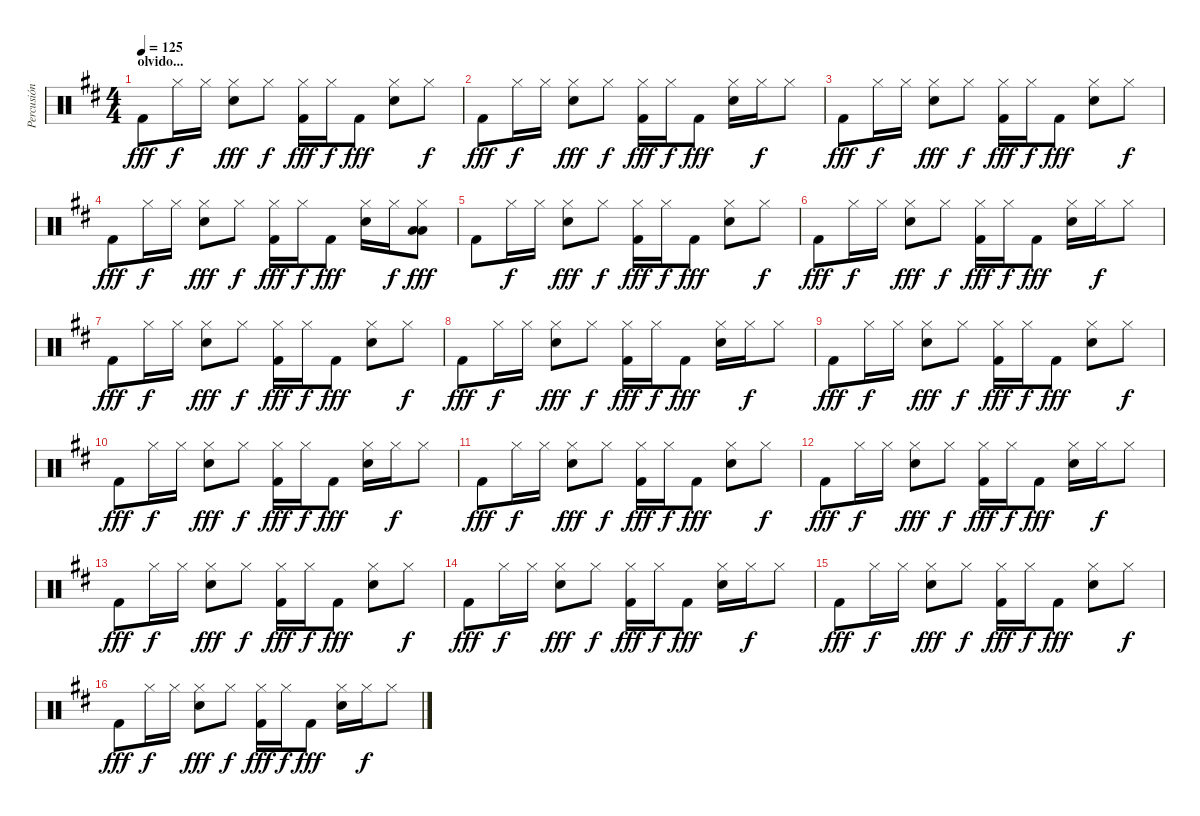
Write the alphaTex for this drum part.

\track ("Percusión" "Percusión") {instrument percussion}
\staff {score}
\articulation defaults
\ts (4 4)
\section ("" "olvido...")
\tempo 125
\clef neutral
\ks d "Kick (hit) 2".8{dy fff} "Hi-Hat (closed)".16{dy f} "Hi-Hat (closed)".16
("Hi-Hat (closed)" "Electric Snare (hit)").8{dy fff} "Hi-Hat (closed)".8{dy f} ("Hi-Hat (closed)" "Kick (hit) 2").16{dy fff} "Hi-Hat (closed)".16{dy f} "Kick (hit) 2".8{dy fff} ("Hi-Hat (closed)" "Electric Snare (hit)").8 "Hi-Hat (closed)".8{dy f} |
"Kick (hit) 2".8{dy fff} "Hi-Hat (closed)".16{dy f} "Hi-Hat (closed)".16 ("Hi-Hat (closed)" "Electric Snare (hit)").8{dy fff} "Hi-Hat (closed)".8{dy f} ("Hi-Hat (closed)" "Kick (hit) 2").16{dy fff} "Hi-Hat (closed)".16{dy f} "Kick (hit) 2".8{dy fff} ("Hi-Hat (closed)" "Electric Snare (hit)").16 "Hi-Hat (closed)".16{dy f} "Hi-Hat (closed)".8 |
"Kick (hit) 2".8{dy fff} "Hi-Hat (closed)".16{dy f} "Hi-Hat (closed)".16 ("Hi-Hat (closed)" "Electric Snare (hit)").8{dy fff} "Hi-Hat (closed)".8{dy f} ("Hi-Hat (closed)" "Kick (hit) 2").16{dy fff} "Hi-Hat (closed)".16{dy f} "Kick (hit) 2".8{dy fff} ("Hi-Hat (closed)" "Electric Snare (hit)").8 "Hi-Hat (closed)".8{dy f} |
"Kick (hit) 2".8{dy fff} "Hi-Hat (closed)".16{dy f} "Hi-Hat (closed)".16 ("Hi-Hat (closed)" "Electric Snare (hit)").8{dy fff} "Hi-Hat (closed)".8{dy f} ("Hi-Hat (closed)" "Kick (hit) 2").16{dy fff} "Hi-Hat (closed)".16{dy f} "Kick (hit) 2".8{dy fff} ("Hi-Hat (closed)" "Electric Snare (hit)").16 "Hi-Hat (closed)".16{dy f} ("Hi-Hat (closed)" "Low Tom (hit)" "Low Tom (hit)").8{dy fff} |
"Kick (hit) 2".8 "Hi-Hat (closed)".16{dy f} "Hi-Hat (closed)".16 ("Hi-Hat (closed)" "Electric Snare (hit)").8{dy fff} "Hi-Hat (closed)".8{dy f} ("Hi-Hat (closed)" "Kick (hit) 2").16{dy fff} "Hi-Hat (closed)".16{dy f} "Kick (hit) 2".8{dy fff} ("Hi-Hat (closed)" "Electric Snare (hit)").8 "Hi-Hat (closed)".8{dy f} |
"Kick (hit) 2".8{dy fff} "Hi-Hat (closed)".16{dy f} "Hi-Hat (closed)".16 ("Hi-Hat (closed)" "Electric Snare (hit)").8{dy fff} "Hi-Hat (closed)".8{dy f} ("Hi-Hat (closed)" "Kick (hit) 2").16{dy fff} "Hi-Hat (closed)".16{dy f} "Kick (hit) 2".8{dy fff} ("Hi-Hat (closed)" "Electric Snare (hit)").16 "Hi-Hat (closed)".16{dy f} "Hi-Hat (closed)".8 |
"Kick (hit) 2".8{dy fff} "Hi-Hat (closed)".16{dy f} "Hi-Hat (closed)".16 ("Hi-Hat (closed)" "Electric Snare (hit)").8{dy fff} "Hi-Hat (closed)".8{dy f} ("Hi-Hat (closed)" "Kick (hit) 2").16{dy fff} "Hi-Hat (closed)".16{dy f} "Kick (hit) 2".8{dy fff} ("Hi-Hat (closed)" "Electric Snare (hit)").8 "Hi-Hat (closed)".8{dy f} |
"Kick (hit) 2".8{dy fff} "Hi-Hat (closed)".16{dy f} "Hi-Hat (closed)".16 ("Hi-Hat (closed)" "Electric Snare (hit)").8{dy fff} "Hi-Hat (closed)".8{dy f} ("Hi-Hat (closed)" "Kick (hit) 2").16{dy fff} "Hi-Hat (closed)".16{dy f} "Kick (hit) 2".8{dy fff} ("Hi-Hat (closed)" "Electric Snare (hit)").16 "Hi-Hat (closed)".16{dy f} "Hi-Hat (closed)".8 |
"Kick (hit) 2".8{dy fff} "Hi-Hat (closed)".16{dy f} "Hi-Hat (closed)".16 ("Hi-Hat (closed)" "Electric Snare (hit)").8{dy fff} "Hi-Hat (closed)".8{dy f} ("Hi-Hat (closed)" "Kick (hit) 2").16{dy fff} "Hi-Hat (closed)".16{dy f} "Kick (hit) 2".8{dy fff} ("Hi-Hat (closed)" "Electric Snare (hit)").8 "Hi-Hat (closed)".8{dy f} |
"Kick (hit) 2".8{dy fff} "Hi-Hat (closed)".16{dy f} "Hi-Hat (closed)".16 ("Hi-Hat (closed)" "Electric Snare (hit)").8{dy fff} "Hi-Hat (closed)".8{dy f} ("Hi-Hat (closed)" "Kick (hit) 2").16{dy fff} "Hi-Hat (closed)".16{dy f} "Kick (hit) 2".8{dy fff} ("Hi-Hat (closed)" "Electric Snare (hit)").16 "Hi-Hat (closed)".16{dy f} "Hi-Hat (closed)".8 |
"Kick (hit) 2".8{dy fff} "Hi-Hat (closed)".16{dy f} "Hi-Hat (closed)".16 ("Hi-Hat (closed)" "Electric Snare (hit)").8{dy fff} "Hi-Hat (closed)".8{dy f} ("Hi-Hat (closed)" "Kick (hit) 2").16{dy fff} "Hi-Hat (closed)".16{dy f} "Kick (hit) 2".8{dy fff} ("Hi-Hat (closed)" "Electric Snare (hit)").8 "Hi-Hat (closed)".8{dy f} |
"Kick (hit) 2".8{dy fff} "Hi-Hat (closed)".16{dy f} "Hi-Hat (closed)".16 ("Hi-Hat (closed)" "Electric Snare (hit)").8{dy fff} "Hi-Hat (closed)".8{dy f} ("Hi-Hat (closed)" "Kick (hit) 2").16{dy fff} "Hi-Hat (closed)".16{dy f} "Kick (hit) 2".8{dy fff} ("Hi-Hat (closed)" "Electric Snare (hit)").16 "Hi-Hat (closed)".16{dy f} "Hi-Hat (closed)".8 |
"Kick (hit) 2".8{dy fff} "Hi-Hat (closed)".16{dy f} "Hi-Hat (closed)".16 ("Hi-Hat (closed)" "Electric Snare (hit)").8{dy fff} "Hi-Hat (closed)".8{dy f} ("Hi-Hat (closed)" "Kick (hit) 2").16{dy fff} "Hi-Hat (closed)".16{dy f} "Kick (hit) 2".8{dy fff} ("Hi-Hat (closed)" "Electric Snare (hit)").8 "Hi-Hat (closed)".8{dy f} |
"Kick (hit) 2".8{dy fff} "Hi-Hat (closed)".16{dy f} "Hi-Hat (closed)".16 ("Hi-Hat (closed)" "Electric Snare (hit)").8{dy fff} "Hi-Hat (closed)".8{dy f} ("Hi-Hat (closed)" "Kick (hit) 2").16{dy fff} "Hi-Hat (closed)".16{dy f} "Kick (hit) 2".8{dy fff} ("Hi-Hat (closed)" "Electric Snare (hit)").16 "Hi-Hat (closed)".16{dy f} "Hi-Hat (closed)".8 |
"Kick (hit) 2".8{dy fff} "Hi-Hat (closed)".16{dy f} "Hi-Hat (closed)".16 ("Hi-Hat (closed)" "Electric Snare (hit)").8{dy fff} "Hi-Hat (closed)".8{dy f} ("Hi-Hat (closed)" "Kick (hit) 2").16{dy fff} "Hi-Hat (closed)".16{dy f} "Kick (hit) 2".8{dy fff} ("Hi-Hat (closed)" "Electric Snare (hit)").8 "Hi-Hat (closed)".8{dy f} |
"Kick (hit) 2".8{dy fff} "Hi-Hat (closed)".16{dy f} "Hi-Hat (closed)".16 ("Hi-Hat (closed)" "Electric Snare (hit)").8{dy fff} "Hi-Hat (closed)".8{dy f} ("Hi-Hat (closed)" "Kick (hit) 2").16{dy fff} "Hi-Hat (closed)".16{dy f} "Kick (hit) 2".8{dy fff} ("Hi-Hat (closed)" "Electric Snare (hit)").16 "Hi-Hat (closed)".16{dy f} "Hi-Hat (closed)".8
